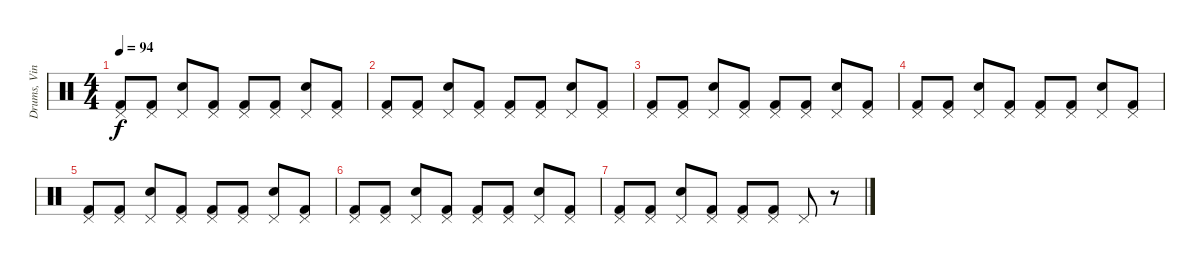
\track ("Drums, Vinnie" "Drums, Vin") {instrument percussion}
\staff {score}
\articulation defaults
\ts (4 4)
\tempo 94
\clef neutral
\ks c
("Pedal Hi-Hat (hit)" "Kick (hit) 2").8{dy f} ("Pedal Hi-Hat (hit)" "Kick (hit) 2").8 ("Pedal Hi-Hat (hit)" "Electric Snare (hit)").8 ("Pedal Hi-Hat (hit)" "Kick (hit) 2").8 ("Pedal Hi-Hat (hit)" "Kick (hit) 2").8 ("Pedal Hi-Hat (hit)" "Kick (hit) 2").8 ("Pedal Hi-Hat (hit)" "Electric Snare (hit)").8 ("Pedal Hi-Hat (hit)" "Kick (hit) 2").8 |
("Pedal Hi-Hat (hit)" "Kick (hit) 2").8 ("Pedal Hi-Hat (hit)" "Kick (hit) 2").8 ("Pedal Hi-Hat (hit)" "Electric Snare (hit)").8 ("Pedal Hi-Hat (hit)" "Kick (hit) 2").8 ("Pedal Hi-Hat (hit)" "Kick (hit) 2").8 ("Pedal Hi-Hat (hit)" "Kick (hit) 2").8 ("Pedal Hi-Hat (hit)" "Electric Snare (hit)").8 ("Pedal Hi-Hat (hit)" "Kick (hit) 2").8 |
("Pedal Hi-Hat (hit)" "Kick (hit) 2").8 ("Pedal Hi-Hat (hit)" "Kick (hit) 2").8 ("Pedal Hi-Hat (hit)" "Electric Snare (hit)").8 ("Pedal Hi-Hat (hit)" "Kick (hit) 2").8 ("Pedal Hi-Hat (hit)" "Kick (hit) 2").8 ("Pedal Hi-Hat (hit)" "Kick (hit) 2").8 ("Pedal Hi-Hat (hit)" "Electric Snare (hit)").8 ("Pedal Hi-Hat (hit)" "Kick (hit) 2").8 |
("Pedal Hi-Hat (hit)" "Kick (hit) 2").8 ("Pedal Hi-Hat (hit)" "Kick (hit) 2").8 ("Pedal Hi-Hat (hit)" "Electric Snare (hit)").8 ("Pedal Hi-Hat (hit)" "Kick (hit) 2").8 ("Pedal Hi-Hat (hit)" "Kick (hit) 2").8 ("Pedal Hi-Hat (hit)" "Kick (hit) 2").8 ("Pedal Hi-Hat (hit)" "Electric Snare (hit)").8 ("Pedal Hi-Hat (hit)" "Kick (hit) 2").8 |
("Pedal Hi-Hat (hit)" "Kick (hit) 2").8 ("Pedal Hi-Hat (hit)" "Kick (hit) 2").8 ("Pedal Hi-Hat (hit)" "Electric Snare (hit)").8 ("Pedal Hi-Hat (hit)" "Kick (hit) 2").8 ("Pedal Hi-Hat (hit)" "Kick (hit) 2").8 ("Pedal Hi-Hat (hit)" "Kick (hit) 2").8 ("Pedal Hi-Hat (hit)" "Electric Snare (hit)").8 ("Pedal Hi-Hat (hit)" "Kick (hit) 2").8 |
("Pedal Hi-Hat (hit)" "Kick (hit) 2").8 ("Pedal Hi-Hat (hit)" "Kick (hit) 2").8 ("Pedal Hi-Hat (hit)" "Electric Snare (hit)").8 ("Pedal Hi-Hat (hit)" "Kick (hit) 2").8 ("Pedal Hi-Hat (hit)" "Kick (hit) 2").8 ("Pedal Hi-Hat (hit)" "Kick (hit) 2").8 ("Pedal Hi-Hat (hit)" "Electric Snare (hit)").8 ("Pedal Hi-Hat (hit)" "Kick (hit) 2").8 |
("Pedal Hi-Hat (hit)" "Kick (hit) 2").8 ("Pedal Hi-Hat (hit)" "Kick (hit) 2").8 ("Pedal Hi-Hat (hit)" "Electric Snare (hit)").8 ("Pedal Hi-Hat (hit)" "Kick (hit) 2").8 ("Pedal Hi-Hat (hit)" "Kick (hit) 2").8 ("Pedal Hi-Hat (hit)" "Kick (hit) 2").8 "Pedal Hi-Hat (hit)".8 r.8
